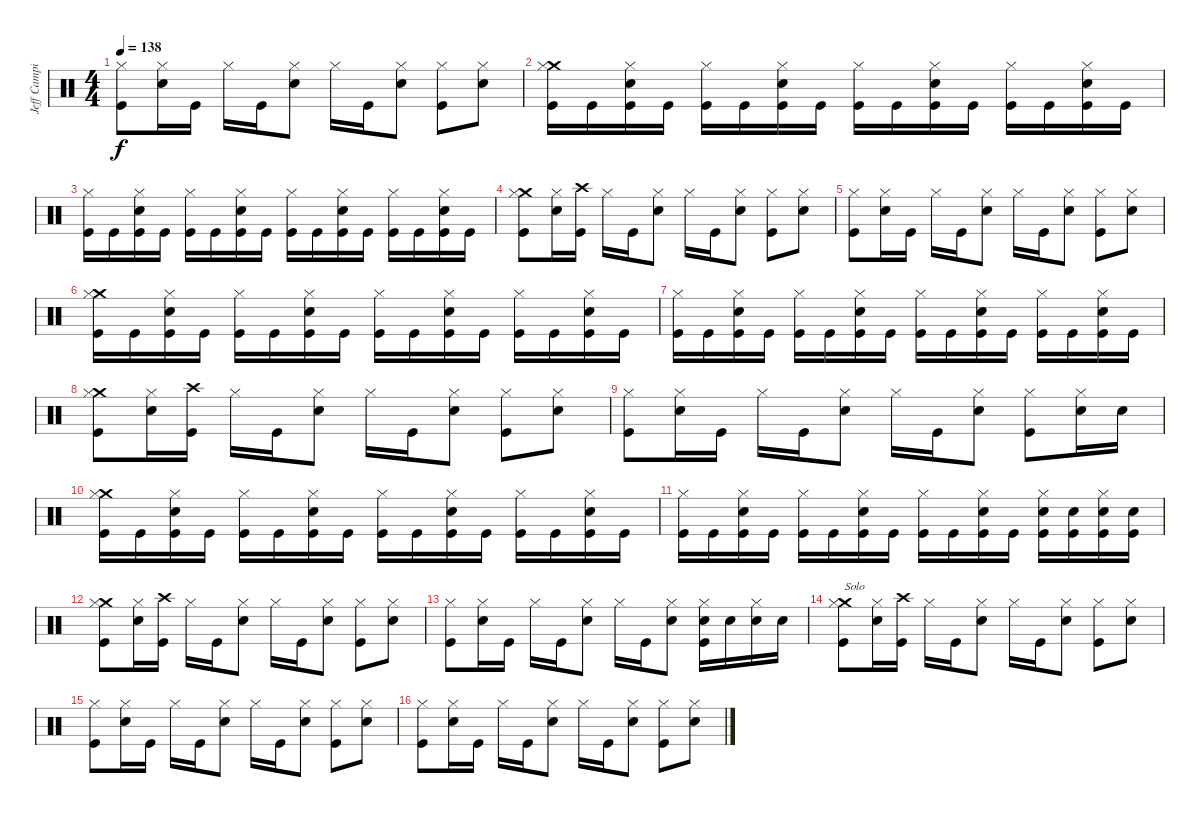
\track ("Jeff Campitelli" "Jeff Campi") {instrument percussion}
\staff {score}
\articulation defaults
\ts (4 4)
\tempo 138
\clef neutral
\ks c
("Hi-Hat (closed)" "Kick (hit)").8{dy f} ("Electric Snare (hit)" "Hi-Hat (closed)").16 "Kick (hit)".16 "Hi-Hat (closed)".16 "Kick (hit)".16 ("Electric Snare (hit)" "Hi-Hat (closed)").8 "Hi-Hat (closed)".16 "Kick (hit)".16 ("Electric Snare (hit)" "Hi-Hat (closed)").8 ("Hi-Hat (closed)" "Kick (hit)").8 ("Electric Snare (hit)" "Hi-Hat (closed)").8 |
("Crash medium (hit)" "Hi-Hat (closed)" "Kick (hit)").16 "Kick (hit)".16 ("Electric Snare (hit)" "Hi-Hat (closed)" "Kick (hit)").16 "Kick (hit)".16 ("Hi-Hat (closed)" "Kick (hit)").16 "Kick (hit)".16 ("Electric Snare (hit)" "Hi-Hat (closed)" "Kick (hit)").16 "Kick (hit)".16 ("Hi-Hat (closed)" "Kick (hit)").16 "Kick (hit)".16 ("Electric Snare (hit)" "Hi-Hat (closed)" "Kick (hit)").16 "Kick (hit)".16 ("Hi-Hat (closed)" "Kick (hit)").16 "Kick (hit)".16 ("Electric Snare (hit)" "Hi-Hat (closed)" "Kick (hit)").16 "Kick (hit)".16 |
("Hi-Hat (closed)" "Kick (hit)").16 "Kick (hit)".16 ("Electric Snare (hit)" "Hi-Hat (closed)" "Kick (hit)").16 "Kick (hit)".16 ("Hi-Hat (closed)" "Kick (hit)").16 "Kick (hit)".16 ("Electric Snare (hit)" "Hi-Hat (closed)" "Kick (hit)").16 "Kick (hit)".16 ("Hi-Hat (closed)" "Kick (hit)").16 "Kick (hit)".16 ("Electric Snare (hit)" "Hi-Hat (closed)" "Kick (hit)").16 "Kick (hit)".16 ("Hi-Hat (closed)" "Kick (hit)").16 "Kick (hit)".16 ("Electric Snare (hit)" "Hi-Hat (closed)" "Kick (hit)").16 "Kick (hit)".16 |
("Crash medium (hit)" "Hi-Hat (closed)" "Kick (hit)").8 ("Electric Snare (hit)" "Hi-Hat (closed)").16 ("Crash high (hit)" "Kick (hit)").16 "Hi-Hat (closed)".16 "Kick (hit)".16 ("Electric Snare (hit)" "Hi-Hat (closed)").8 "Hi-Hat (closed)".16 "Kick (hit)".16 ("Electric Snare (hit)" "Hi-Hat (closed)").8 ("Hi-Hat (closed)" "Kick (hit)").8 ("Electric Snare (hit)" "Hi-Hat (closed)").8 |
("Hi-Hat (closed)" "Kick (hit)").8 ("Electric Snare (hit)" "Hi-Hat (closed)").16 "Kick (hit)".16 "Hi-Hat (closed)".16 "Kick (hit)".16 ("Electric Snare (hit)" "Hi-Hat (closed)").8 "Hi-Hat (closed)".16 "Kick (hit)".16 ("Electric Snare (hit)" "Hi-Hat (closed)").8 ("Hi-Hat (closed)" "Kick (hit)").8 ("Electric Snare (hit)" "Hi-Hat (closed)").8 |
("Crash medium (hit)" "Hi-Hat (closed)" "Kick (hit)").16 "Kick (hit)".16 ("Electric Snare (hit)" "Hi-Hat (closed)" "Kick (hit)").16 "Kick (hit)".16 ("Hi-Hat (closed)" "Kick (hit)").16 "Kick (hit)".16 ("Electric Snare (hit)" "Hi-Hat (closed)" "Kick (hit)").16 "Kick (hit)".16 ("Hi-Hat (closed)" "Kick (hit)").16 "Kick (hit)".16 ("Electric Snare (hit)" "Hi-Hat (closed)" "Kick (hit)").16 "Kick (hit)".16 ("Hi-Hat (closed)" "Kick (hit)").16 "Kick (hit)".16 ("Electric Snare (hit)" "Hi-Hat (closed)" "Kick (hit)").16 "Kick (hit)".16 |
("Hi-Hat (closed)" "Kick (hit)").16 "Kick (hit)".16 ("Electric Snare (hit)" "Hi-Hat (closed)" "Kick (hit)").16 "Kick (hit)".16 ("Hi-Hat (closed)" "Kick (hit)").16 "Kick (hit)".16 ("Electric Snare (hit)" "Hi-Hat (closed)" "Kick (hit)").16 "Kick (hit)".16 ("Hi-Hat (closed)" "Kick (hit)").16 "Kick (hit)".16 ("Electric Snare (hit)" "Hi-Hat (closed)" "Kick (hit)").16 "Kick (hit)".16 ("Hi-Hat (closed)" "Kick (hit)").16 "Kick (hit)".16 ("Electric Snare (hit)" "Hi-Hat (closed)" "Kick (hit)").16 "Kick (hit)".16 |
("Crash medium (hit)" "Hi-Hat (closed)" "Kick (hit)").8 ("Electric Snare (hit)" "Hi-Hat (closed)").16 ("Crash high (hit)" "Kick (hit)").16 "Hi-Hat (closed)".16 "Kick (hit)".16 ("Electric Snare (hit)" "Hi-Hat (closed)").8 "Hi-Hat (closed)".16 "Kick (hit)".16 ("Electric Snare (hit)" "Hi-Hat (closed)").8 ("Hi-Hat (closed)" "Kick (hit)").8 ("Electric Snare (hit)" "Hi-Hat (closed)").8 |
("Hi-Hat (closed)" "Kick (hit)").8 ("Electric Snare (hit)" "Hi-Hat (closed)").16 "Kick (hit)".16 "Hi-Hat (closed)".16 "Kick (hit)".16 ("Electric Snare (hit)" "Hi-Hat (closed)").8 "Hi-Hat (closed)".16 "Kick (hit)".16 ("Electric Snare (hit)" "Hi-Hat (closed)").8 ("Hi-Hat (closed)" "Kick (hit)").8 ("Electric Snare (hit)" "Hi-Hat (closed)").16 "Electric Snare (hit)".16 |
("Crash medium (hit)" "Hi-Hat (closed)" "Kick (hit)").16 "Kick (hit)".16 ("Electric Snare (hit)" "Hi-Hat (closed)" "Kick (hit)").16 "Kick (hit)".16 ("Hi-Hat (closed)" "Kick (hit)").16 "Kick (hit)".16 ("Electric Snare (hit)" "Hi-Hat (closed)" "Kick (hit)").16 "Kick (hit)".16 ("Hi-Hat (closed)" "Kick (hit)").16 "Kick (hit)".16 ("Electric Snare (hit)" "Hi-Hat (closed)" "Kick (hit)").16 "Kick (hit)".16 ("Hi-Hat (closed)" "Kick (hit)").16 "Kick (hit)".16 ("Electric Snare (hit)" "Hi-Hat (closed)" "Kick (hit)").16 "Kick (hit)".16 |
("Hi-Hat (closed)" "Kick (hit)").16 "Kick (hit)".16 ("Electric Snare (hit)" "Hi-Hat (closed)" "Kick (hit)").16 "Kick (hit)".16 ("Hi-Hat (closed)" "Kick (hit)").16 "Kick (hit)".16 ("Electric Snare (hit)" "Hi-Hat (closed)" "Kick (hit)").16 "Kick (hit)".16 ("Hi-Hat (closed)" "Kick (hit)").16 "Kick (hit)".16 ("Electric Snare (hit)" "Hi-Hat (closed)" "Kick (hit)").16 "Kick (hit)".16 ("Electric Snare (hit)" "Hi-Hat (closed)" "Kick (hit)").16 ("Electric Snare (hit)" "Kick (hit)").16 ("Electric Snare (hit)" "Hi-Hat (closed)" "Kick (hit)").16 ("Electric Snare (hit)" "Kick (hit)").16 |
("Crash medium (hit)" "Hi-Hat (closed)" "Kick (hit)").8 ("Electric Snare (hit)" "Hi-Hat (closed)").16 ("Crash high (hit)" "Kick (hit)").16 "Hi-Hat (closed)".16 "Kick (hit)".16 ("Electric Snare (hit)" "Hi-Hat (closed)").8 "Hi-Hat (closed)".16 "Kick (hit)".16 ("Electric Snare (hit)" "Hi-Hat (closed)").8 ("Hi-Hat (closed)" "Kick (hit)").8 ("Electric Snare (hit)" "Hi-Hat (closed)").8 |
("Hi-Hat (closed)" "Kick (hit)").8 ("Electric Snare (hit)" "Hi-Hat (closed)").16 "Kick (hit)".16 "Hi-Hat (closed)".16 "Kick (hit)".16 ("Electric Snare (hit)" "Hi-Hat (closed)").8 "Hi-Hat (closed)".16 "Kick (hit)".16 ("Electric Snare (hit)" "Hi-Hat (closed)").8 ("Electric Snare (hit)" "Hi-Hat (closed)" "Kick (hit)").16 "Electric Snare (hit)".16 ("Electric Snare (hit)" "Hi-Hat (closed)").16 "Electric Snare (hit)".16 |
("Crash medium (hit)" "Hi-Hat (closed)" "Kick (hit)").8{txt "Solo"} ("Electric Snare (hit)" "Hi-Hat (closed)").16 ("Crash high (hit)" "Kick (hit)").16 "Hi-Hat (closed)".16 "Kick (hit)".16 ("Electric Snare (hit)" "Hi-Hat (closed)").8 "Hi-Hat (closed)".16 "Kick (hit)".16 ("Electric Snare (hit)" "Hi-Hat (closed)").8 ("Hi-Hat (closed)" "Kick (hit)").8 ("Electric Snare (hit)" "Hi-Hat (closed)").8 |
("Hi-Hat (closed)" "Kick (hit)").8 ("Electric Snare (hit)" "Hi-Hat (closed)").16 "Kick (hit)".16 "Hi-Hat (closed)".16 "Kick (hit)".16 ("Electric Snare (hit)" "Hi-Hat (closed)").8 "Hi-Hat (closed)".16 "Kick (hit)".16 ("Electric Snare (hit)" "Hi-Hat (closed)").8 ("Hi-Hat (closed)" "Kick (hit)").8 ("Electric Snare (hit)" "Hi-Hat (closed)").8 |
("Hi-Hat (closed)" "Kick (hit)").8 ("Electric Snare (hit)" "Hi-Hat (closed)").16 "Kick (hit)".16 "Hi-Hat (closed)".16 "Kick (hit)".16 ("Electric Snare (hit)" "Hi-Hat (closed)").8 "Hi-Hat (closed)".16 "Kick (hit)".16 ("Electric Snare (hit)" "Hi-Hat (closed)").8 ("Hi-Hat (closed)" "Kick (hit)").8 ("Electric Snare (hit)" "Hi-Hat (closed)").8
